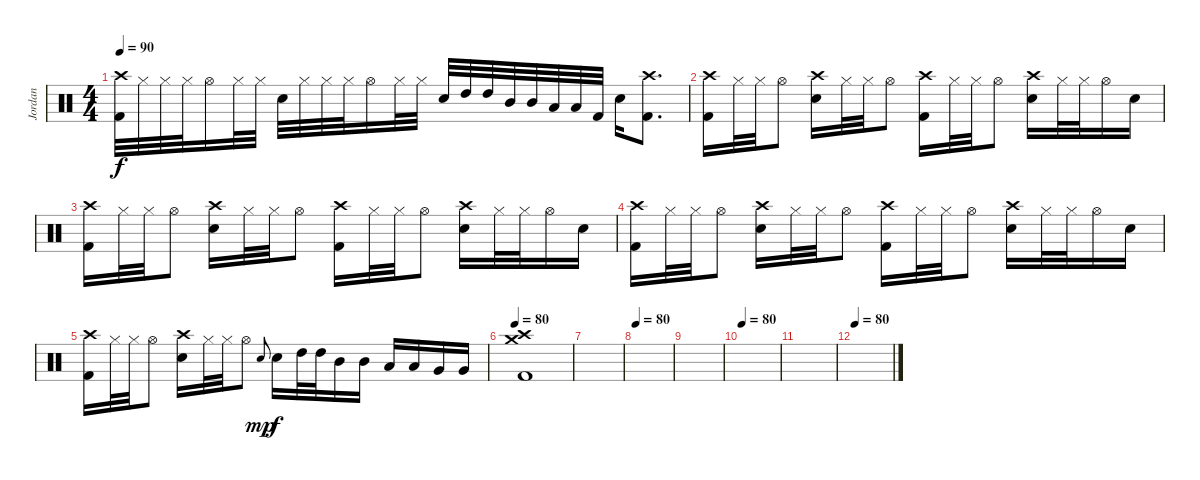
\track ("Jordan" "Jordan") {instrument percussion}
\staff {score}
\articulation defaults
\ts (4 4)
\tempo 90
\clef neutral
\ks c
("Crash high (hit)" "Kick (hit) 2").32{dy f} "Hi-Hat (closed)".32 "Hi-Hat (closed)".32 "Hi-Hat (closed)".32 "Hi-Hat (open)".16 "Hi-Hat (closed)".32 "Hi-Hat (closed)".32 "Snare (hit) 2".32 "Hi-Hat (closed)".32 "Hi-Hat (closed)".32 "Hi-Hat (closed)".32 "Hi-Hat (open)".16 "Hi-Hat (closed)".32 "Hi-Hat (closed)".32 "Snare (hit) 2".32 "High Tom (hit)".32 "High Tom (hit)".32 "Mid Tom (hit)".32 "Mid Tom (hit)".32 "Low Tom (hit)".32 "Low Tom (hit)".32 "Kick (hit) 2".32 "Snare (hit) 2".16 ("Crash high (hit)" "Kick (hit) 2").8{d} |
("Crash high (hit)" "Kick (hit) 2").16 "Hi-Hat (closed)".32 "Hi-Hat (closed)".32 "Hi-Hat (open)".8 ("Crash high (hit)" "Snare (hit) 2").16 "Hi-Hat (closed)".32 "Hi-Hat (closed)".32 "Hi-Hat (open)".8 ("Crash high (hit)" "Kick (hit) 2").16 "Hi-Hat (closed)".32 "Hi-Hat (closed)".32 "Hi-Hat (open)".8 ("Crash high (hit)" "Snare (hit) 2").16 "Hi-Hat (closed)".32 "Hi-Hat (closed)".32 "Hi-Hat (open)".16 "Snare (hit) 2".16 |
("Crash high (hit)" "Kick (hit) 2").16 "Hi-Hat (closed)".32 "Hi-Hat (closed)".32 "Hi-Hat (open)".8 ("Crash high (hit)" "Snare (hit) 2").16 "Hi-Hat (closed)".32 "Hi-Hat (closed)".32 "Hi-Hat (open)".8 ("Crash high (hit)" "Kick (hit) 2").16 "Hi-Hat (closed)".32 "Hi-Hat (closed)".32 "Hi-Hat (open)".8 ("Crash high (hit)" "Snare (hit) 2").16 "Hi-Hat (closed)".32 "Hi-Hat (closed)".32 "Hi-Hat (open)".16 "Snare (hit) 2".16 |
("Crash high (hit)" "Kick (hit) 2").16 "Hi-Hat (closed)".32 "Hi-Hat (closed)".32 "Hi-Hat (open)".8 ("Crash high (hit)" "Snare (hit) 2").16 "Hi-Hat (closed)".32 "Hi-Hat (closed)".32 "Hi-Hat (open)".8 ("Crash high (hit)" "Kick (hit) 2").16 "Hi-Hat (closed)".32 "Hi-Hat (closed)".32 "Hi-Hat (open)".8 ("Crash high (hit)" "Snare (hit) 2").16 "Hi-Hat (closed)".32 "Hi-Hat (closed)".32 "Hi-Hat (open)".16 "Snare (hit) 2".16 |
("Crash high (hit)" "Kick (hit) 2").16 "Hi-Hat (closed)".32 "Hi-Hat (closed)".32 "Hi-Hat (open)".8 ("Crash high (hit)" "Snare (hit) 2").16 "Hi-Hat (closed)".32 "Hi-Hat (closed)".32 "Hi-Hat (open)".8 "Snare (hit) 2".8{gr onbeat dy mp} "Snare (hit) 2".16{dy f} "High Tom (hit)".32 "High Tom (hit)".32 "Mid Tom (hit)".16 "Mid Tom (hit)".16 "Low Tom (hit)".16 "Low Tom (hit)".16 "Very Low Tom (hit)".16 "Very Low Tom (hit)".16 |
\tempo 80
("Crash high (hit)" "Crash medium (hit)" "Kick (hit) 2").1 |
|
\tempo 80
|
|
\tempo 80
|
|
\tempo 80
